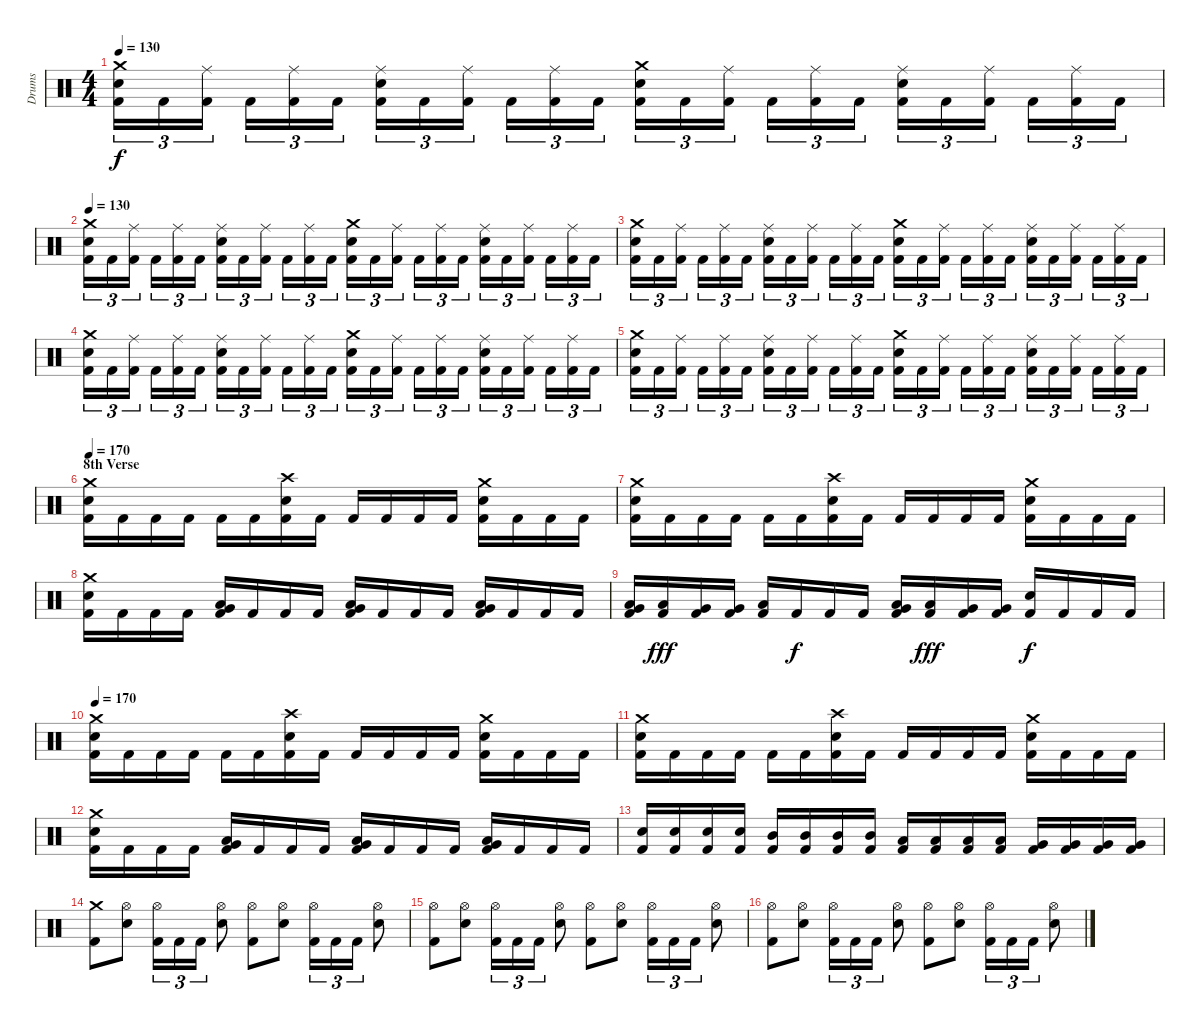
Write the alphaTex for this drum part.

\track ("Drums" "Drums") {instrument percussion}
\staff {score}
\articulation defaults
\ts (4 4)
\tempo 130
\clef neutral
\ks c
("Kick (hit) 2" "Electric Snare (hit)" "Crash medium (hit)").16{tu (3 2) dy f} "Kick (hit) 2".16{tu (3 2)} ("Kick (hit) 2" "Ride (middle)").16{tu (3 2)} "Kick (hit) 2".16{tu (3 2)} ("Kick (hit) 2" "Ride (middle)").16{tu (3 2)} "Kick (hit) 2".16{tu (3 2)} ("Kick (hit) 2" "Electric Snare (hit)" "Ride (middle)").16{tu (3 2)} "Kick (hit) 2".16{tu (3 2)} ("Kick (hit) 2" "Ride (middle)").16{tu (3 2)} "Kick (hit) 2".16{tu (3 2)} ("Kick (hit) 2" "Ride (middle)").16{tu (3 2)} "Kick (hit) 2".16{tu (3 2)} ("Kick (hit) 2" "Electric Snare (hit)" "Crash medium (hit)").16{tu (3 2)} "Kick (hit) 2".16{tu (3 2)} ("Kick (hit) 2" "Ride (middle)").16{tu (3 2)} "Kick (hit) 2".16{tu (3 2)} ("Kick (hit) 2" "Ride (middle)").16{tu (3 2)} "Kick (hit) 2".16{tu (3 2)} ("Kick (hit) 2" "Electric Snare (hit)" "Ride (middle)").16{tu (3 2)} "Kick (hit) 2".16{tu (3 2)} ("Kick (hit) 2" "Ride (middle)").16{tu (3 2)} "Kick (hit) 2".16{tu (3 2)} ("Kick (hit) 2" "Ride (middle)").16{tu (3 2)} "Kick (hit) 2".16{tu (3 2)} |
\tempo 130
("Kick (hit) 2" "Electric Snare (hit)" "Crash medium (hit)").16{tu (3 2)} "Kick (hit) 2".16{tu (3 2)} ("Kick (hit) 2" "Ride (middle)").16{tu (3 2)} "Kick (hit) 2".16{tu (3 2)} ("Kick (hit) 2" "Ride (middle)").16{tu (3 2)} "Kick (hit) 2".16{tu (3 2)} ("Kick (hit) 2" "Electric Snare (hit)" "Ride (middle)").16{tu (3 2)} "Kick (hit) 2".16{tu (3 2)} ("Kick (hit) 2" "Ride (middle)").16{tu (3 2)} "Kick (hit) 2".16{tu (3 2)} ("Kick (hit) 2" "Ride (middle)").16{tu (3 2)} "Kick (hit) 2".16{tu (3 2)} ("Kick (hit) 2" "Electric Snare (hit)" "Crash medium (hit)").16{tu (3 2)} "Kick (hit) 2".16{tu (3 2)} ("Kick (hit) 2" "Ride (middle)").16{tu (3 2)} "Kick (hit) 2".16{tu (3 2)} ("Kick (hit) 2" "Ride (middle)").16{tu (3 2)} "Kick (hit) 2".16{tu (3 2)} ("Kick (hit) 2" "Electric Snare (hit)" "Ride (middle)").16{tu (3 2)} "Kick (hit) 2".16{tu (3 2)} ("Kick (hit) 2" "Ride (middle)").16{tu (3 2)} "Kick (hit) 2".16{tu (3 2)} ("Kick (hit) 2" "Ride (middle)").16{tu (3 2)} "Kick (hit) 2".16{tu (3 2)} |
("Kick (hit) 2" "Electric Snare (hit)" "Crash medium (hit)").16{tu (3 2)} "Kick (hit) 2".16{tu (3 2)} ("Kick (hit) 2" "Ride (middle)").16{tu (3 2)} "Kick (hit) 2".16{tu (3 2)} ("Kick (hit) 2" "Ride (middle)").16{tu (3 2)} "Kick (hit) 2".16{tu (3 2)} ("Kick (hit) 2" "Electric Snare (hit)" "Ride (middle)").16{tu (3 2)} "Kick (hit) 2".16{tu (3 2)} ("Kick (hit) 2" "Ride (middle)").16{tu (3 2)} "Kick (hit) 2".16{tu (3 2)} ("Kick (hit) 2" "Ride (middle)").16{tu (3 2)} "Kick (hit) 2".16{tu (3 2)} ("Kick (hit) 2" "Electric Snare (hit)" "Crash medium (hit)").16{tu (3 2)} "Kick (hit) 2".16{tu (3 2)} ("Kick (hit) 2" "Ride (middle)").16{tu (3 2)} "Kick (hit) 2".16{tu (3 2)} ("Kick (hit) 2" "Ride (middle)").16{tu (3 2)} "Kick (hit) 2".16{tu (3 2)} ("Kick (hit) 2" "Electric Snare (hit)" "Ride (middle)").16{tu (3 2)} "Kick (hit) 2".16{tu (3 2)} ("Kick (hit) 2" "Ride (middle)").16{tu (3 2)} "Kick (hit) 2".16{tu (3 2)} ("Kick (hit) 2" "Ride (middle)").16{tu (3 2)} "Kick (hit) 2".16{tu (3 2)} |
("Kick (hit) 2" "Electric Snare (hit)" "Crash medium (hit)").16{tu (3 2)} "Kick (hit) 2".16{tu (3 2)} ("Kick (hit) 2" "Ride (middle)").16{tu (3 2)} "Kick (hit) 2".16{tu (3 2)} ("Kick (hit) 2" "Ride (middle)").16{tu (3 2)} "Kick (hit) 2".16{tu (3 2)} ("Kick (hit) 2" "Electric Snare (hit)" "Ride (middle)").16{tu (3 2)} "Kick (hit) 2".16{tu (3 2)} ("Kick (hit) 2" "Ride (middle)").16{tu (3 2)} "Kick (hit) 2".16{tu (3 2)} ("Kick (hit) 2" "Ride (middle)").16{tu (3 2)} "Kick (hit) 2".16{tu (3 2)} ("Kick (hit) 2" "Electric Snare (hit)" "Crash medium (hit)").16{tu (3 2)} "Kick (hit) 2".16{tu (3 2)} ("Kick (hit) 2" "Ride (middle)").16{tu (3 2)} "Kick (hit) 2".16{tu (3 2)} ("Kick (hit) 2" "Ride (middle)").16{tu (3 2)} "Kick (hit) 2".16{tu (3 2)} ("Kick (hit) 2" "Electric Snare (hit)" "Ride (middle)").16{tu (3 2)} "Kick (hit) 2".16{tu (3 2)} ("Kick (hit) 2" "Ride (middle)").16{tu (3 2)} "Kick (hit) 2".16{tu (3 2)} ("Kick (hit) 2" "Ride (middle)").16{tu (3 2)} "Kick (hit) 2".16{tu (3 2)} |
("Kick (hit) 2" "Electric Snare (hit)" "Crash medium (hit)").16{tu (3 2)} "Kick (hit) 2".16{tu (3 2)} ("Kick (hit) 2" "Ride (middle)").16{tu (3 2)} "Kick (hit) 2".16{tu (3 2)} ("Kick (hit) 2" "Ride (middle)").16{tu (3 2)} "Kick (hit) 2".16{tu (3 2)} ("Kick (hit) 2" "Electric Snare (hit)" "Ride (middle)").16{tu (3 2)} "Kick (hit) 2".16{tu (3 2)} ("Kick (hit) 2" "Ride (middle)").16{tu (3 2)} "Kick (hit) 2".16{tu (3 2)} ("Kick (hit) 2" "Ride (middle)").16{tu (3 2)} "Kick (hit) 2".16{tu (3 2)} ("Kick (hit) 2" "Electric Snare (hit)" "Crash medium (hit)").16{tu (3 2)} "Kick (hit) 2".16{tu (3 2)} ("Kick (hit) 2" "Ride (middle)").16{tu (3 2)} "Kick (hit) 2".16{tu (3 2)} ("Kick (hit) 2" "Ride (middle)").16{tu (3 2)} "Kick (hit) 2".16{tu (3 2)} ("Kick (hit) 2" "Electric Snare (hit)" "Ride (middle)").16{tu (3 2)} "Kick (hit) 2".16{tu (3 2)} ("Kick (hit) 2" "Ride (middle)").16{tu (3 2)} "Kick (hit) 2".16{tu (3 2)} ("Kick (hit) 2" "Ride (middle)").16{tu (3 2)} "Kick (hit) 2".16{tu (3 2)} |
\section ("" "8th Verse")
\tempo 170
("Kick (hit) 2" "Electric Snare (hit)" "Crash medium (hit)").16 "Kick (hit) 2".16 "Kick (hit) 2".16 "Kick (hit) 2".16 "Kick (hit) 2".16 "Kick (hit) 2".16 ("Kick (hit) 2" "Electric Snare (hit)" "Crash high (hit)").16 "Kick (hit) 2".16 "Kick (hit) 2".16 "Kick (hit) 2".16 "Kick (hit) 2".16 "Kick (hit) 2".16 ("Kick (hit) 2" "Electric Snare (hit)" "Crash medium (hit)").16 "Kick (hit) 2".16 "Kick (hit) 2".16 "Kick (hit) 2".16 |
("Kick (hit) 2" "Electric Snare (hit)" "Crash medium (hit)").16 "Kick (hit) 2".16 "Kick (hit) 2".16 "Kick (hit) 2".16 "Kick (hit) 2".16 "Kick (hit) 2".16 ("Kick (hit) 2" "Electric Snare (hit)" "Crash high (hit)").16 "Kick (hit) 2".16 "Kick (hit) 2".16 "Kick (hit) 2".16 "Kick (hit) 2".16 "Kick (hit) 2".16 ("Kick (hit) 2" "Electric Snare (hit)" "Crash medium (hit)").16 "Kick (hit) 2".16 "Kick (hit) 2".16 "Kick (hit) 2".16 |
("Kick (hit) 2" "Electric Snare (hit)" "Crash medium (hit)").16 "Kick (hit) 2".16 "Kick (hit) 2".16 "Kick (hit) 2".16 ("Kick (hit) 2" "Low Tom (hit)" "Very Low Tom (hit)").16 "Kick (hit) 2".16 "Kick (hit) 2".16 "Kick (hit) 2".16 ("Kick (hit) 2" "Low Tom (hit)" "Very Low Tom (hit)").16 "Kick (hit) 2".16 "Kick (hit) 2".16 "Kick (hit) 2".16 ("Kick (hit) 2" "Low Tom (hit)" "Very Low Tom (hit)").16 "Kick (hit) 2".16 "Kick (hit) 2".16 "Kick (hit) 2".16 |
("Kick (hit) 2" "Low Tom (hit)" "Very Low Tom (hit)").16 ("Kick (hit) 2" "Low Tom (hit)").16{dy fff} ("Kick (hit) 2" "Very Low Tom (hit)").16 ("Kick (hit) 2" "Very Low Tom (hit)").16 ("Kick (hit) 2" "Low Floor Tom (hit)").16 "Kick (hit) 2".16{dy f} "Kick (hit) 2".16 "Kick (hit) 2".16 ("Kick (hit) 2" "Low Tom (hit)" "Very Low Tom (hit)").16 ("Kick (hit) 2" "Low Tom (hit)").16{dy fff} ("Kick (hit) 2" "Very Low Tom (hit)").16 ("Kick (hit) 2" "Very Low Tom (hit)").16 ("Kick (hit) 2" "Electric Snare (hit)").16{dy f} "Kick (hit) 2".16 "Kick (hit) 2".16 "Kick (hit) 2".16 |
\tempo 170
("Kick (hit) 2" "Electric Snare (hit)" "Crash medium (hit)").16 "Kick (hit) 2".16 "Kick (hit) 2".16 "Kick (hit) 2".16 "Kick (hit) 2".16 "Kick (hit) 2".16 ("Kick (hit) 2" "Electric Snare (hit)" "Crash high (hit)").16 "Kick (hit) 2".16 "Kick (hit) 2".16 "Kick (hit) 2".16 "Kick (hit) 2".16 "Kick (hit) 2".16 ("Kick (hit) 2" "Electric Snare (hit)" "Crash medium (hit)").16 "Kick (hit) 2".16 "Kick (hit) 2".16 "Kick (hit) 2".16 |
("Kick (hit) 2" "Electric Snare (hit)" "Crash medium (hit)").16 "Kick (hit) 2".16 "Kick (hit) 2".16 "Kick (hit) 2".16 "Kick (hit) 2".16 "Kick (hit) 2".16 ("Kick (hit) 2" "Electric Snare (hit)" "Crash high (hit)").16 "Kick (hit) 2".16 "Kick (hit) 2".16 "Kick (hit) 2".16 "Kick (hit) 2".16 "Kick (hit) 2".16 ("Kick (hit) 2" "Electric Snare (hit)" "Crash medium (hit)").16 "Kick (hit) 2".16 "Kick (hit) 2".16 "Kick (hit) 2".16 |
("Kick (hit) 2" "Electric Snare (hit)" "Crash medium (hit)").16 "Kick (hit) 2".16 "Kick (hit) 2".16 "Kick (hit) 2".16 ("Kick (hit) 2" "Low Tom (hit)" "Very Low Tom (hit)").16 "Kick (hit) 2".16 "Kick (hit) 2".16 "Kick (hit) 2".16 ("Kick (hit) 2" "Low Tom (hit)" "Very Low Tom (hit)").16 "Kick (hit) 2".16 "Kick (hit) 2".16 "Kick (hit) 2".16 ("Kick (hit) 2" "Low Tom (hit)" "Very Low Tom (hit)").16 "Kick (hit) 2".16 "Kick (hit) 2".16 "Kick (hit) 2".16 |
("Kick (hit) 2" "Electric Snare (hit)").16 ("Kick (hit) 2" "Electric Snare (hit)").16 ("Kick (hit) 2" "Electric Snare (hit)").16 ("Kick (hit) 2" "Electric Snare (hit)").16 ("Kick (hit) 2" "Mid Tom (hit)").16 ("Kick (hit) 2" "Mid Tom (hit)").16 ("Kick (hit) 2" "Mid Tom (hit)").16 ("Kick (hit) 2" "Mid Tom (hit)").16 ("Kick (hit) 2" "Low Tom (hit)").16 ("Kick (hit) 2" "Low Tom (hit)").16 ("Kick (hit) 2" "Low Tom (hit)").16 ("Kick (hit) 2" "Low Tom (hit)").16 ("Kick (hit) 2" "Very Low Tom (hit)").16 ("Kick (hit) 2" "Very Low Tom (hit)").16 ("Kick (hit) 2" "Very Low Tom (hit)").16 ("Kick (hit) 2" "Very Low Tom (hit)").16 |
("Kick (hit) 2" "Crash medium (hit)").8 ("Electric Snare (hit)" "Hi-Hat (open)").8 ("Kick (hit) 2" "Hi-Hat (open)").16{tu (3 2)} "Kick (hit) 2".16{tu (3 2)} "Kick (hit) 2".16{tu (3 2)} ("Electric Snare (hit)" "Hi-Hat (open)").8 ("Kick (hit) 2" "Hi-Hat (open)").8 ("Electric Snare (hit)" "Hi-Hat (open)").8 ("Kick (hit) 2" "Hi-Hat (open)").16{tu (3 2)} "Kick (hit) 2".16{tu (3 2)} "Kick (hit) 2".16{tu (3 2)} ("Electric Snare (hit)" "Hi-Hat (open)").8 |
("Kick (hit) 2" "Hi-Hat (open)").8 ("Electric Snare (hit)" "Hi-Hat (open)").8 ("Kick (hit) 2" "Hi-Hat (open)").16{tu (3 2)} "Kick (hit) 2".16{tu (3 2)} "Kick (hit) 2".16{tu (3 2)} ("Electric Snare (hit)" "Hi-Hat (open)").8 ("Kick (hit) 2" "Hi-Hat (open)").8 ("Electric Snare (hit)" "Hi-Hat (open)").8 ("Kick (hit) 2" "Hi-Hat (open)").16{tu (3 2)} "Kick (hit) 2".16{tu (3 2)} "Kick (hit) 2".16{tu (3 2)} ("Electric Snare (hit)" "Hi-Hat (open)").8 |
("Kick (hit) 2" "Hi-Hat (open)").8 ("Electric Snare (hit)" "Hi-Hat (open)").8 ("Kick (hit) 2" "Hi-Hat (open)").16{tu (3 2)} "Kick (hit) 2".16{tu (3 2)} "Kick (hit) 2".16{tu (3 2)} ("Electric Snare (hit)" "Hi-Hat (open)").8 ("Kick (hit) 2" "Hi-Hat (open)").8 ("Electric Snare (hit)" "Hi-Hat (open)").8 ("Kick (hit) 2" "Hi-Hat (open)").16{tu (3 2)} "Kick (hit) 2".16{tu (3 2)} "Kick (hit) 2".16{tu (3 2)} ("Electric Snare (hit)" "Hi-Hat (open)").8
